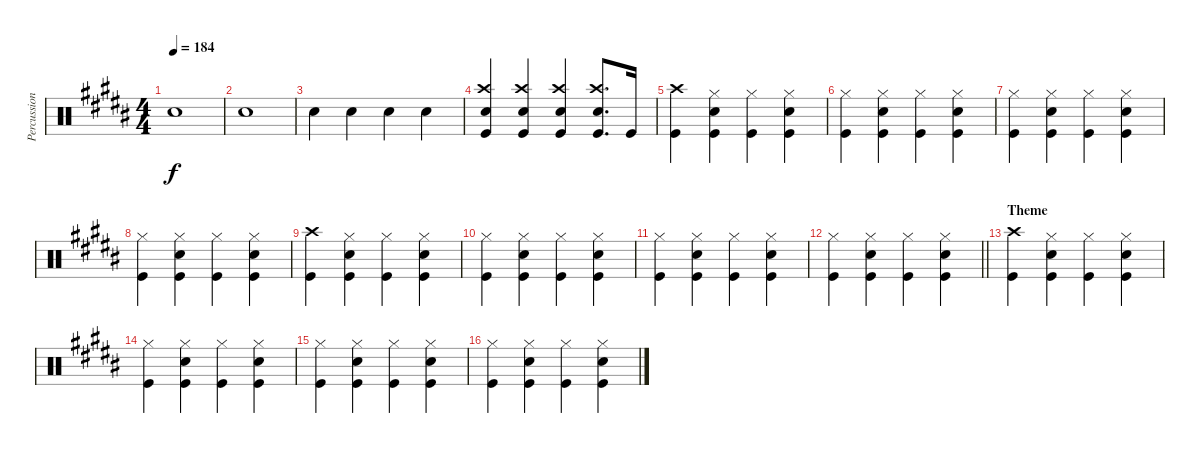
\track ("Percussion" "Percussion") {instrument percussion}
\staff {score}
\articulation defaults
\ts (4 4)
\tempo 184
\clef neutral
\ks b "Snare (hit) 2".1{dy f}
|
"Snare (hit) 2".1 |
"Snare (hit) 2".4 "Snare (hit) 2".4 "Snare (hit) 2".4 "Snare (hit) 2".4 |
("Snare (hit) 2" "Crash high (hit)" "Kick (hit)").4 ("Snare (hit) 2" "Crash high (hit)" "Kick (hit)").4 ("Snare (hit) 2" "Crash high (hit)" "Kick (hit)").4 ("Snare (hit) 2" "Crash high (hit)" "Kick (hit)").8{d} "Kick (hit)".16 |
("Crash high (hit)" "Kick (hit)").4 ("Snare (hit) 2" "Kick (hit)" "Hi-Hat (closed)").4 ("Kick (hit)" "Hi-Hat (closed)").4 ("Snare (hit) 2" "Kick (hit)" "Hi-Hat (closed)").4 |
("Hi-Hat (closed)" "Kick (hit)").4 ("Snare (hit) 2" "Kick (hit)" "Hi-Hat (closed)").4 ("Hi-Hat (closed)" "Kick (hit)").4 ("Snare (hit) 2" "Kick (hit)" "Hi-Hat (closed)").4 |
("Hi-Hat (closed)" "Kick (hit)").4 ("Kick (hit)" "Hi-Hat (closed)" "Snare (hit) 2").4 ("Hi-Hat (closed)" "Kick (hit)").4 ("Hi-Hat (closed)" "Kick (hit)" "Snare (hit) 2").4 |
("Hi-Hat (closed)" "Kick (hit)").4 ("Hi-Hat (closed)" "Kick (hit)" "Snare (hit) 2").4 ("Hi-Hat (closed)" "Kick (hit)").4 ("Hi-Hat (closed)" "Kick (hit)" "Snare (hit) 2").4 |
("Crash high (hit)" "Kick (hit)").4 ("Snare (hit) 2" "Kick (hit)" "Hi-Hat (closed)").4 ("Kick (hit)" "Hi-Hat (closed)").4 ("Snare (hit) 2" "Kick (hit)" "Hi-Hat (closed)").4 |
("Hi-Hat (closed)" "Kick (hit)").4 ("Snare (hit) 2" "Kick (hit)" "Hi-Hat (closed)").4 ("Hi-Hat (closed)" "Kick (hit)").4 ("Snare (hit) 2" "Kick (hit)" "Hi-Hat (closed)").4 |
("Hi-Hat (closed)" "Kick (hit)").4 ("Kick (hit)" "Hi-Hat (closed)" "Snare (hit) 2").4 ("Hi-Hat (closed)" "Kick (hit)").4 ("Hi-Hat (closed)" "Kick (hit)" "Snare (hit) 2").4 |
\barLineRight lightlight
("Hi-Hat (closed)" "Kick (hit)").4 ("Hi-Hat (closed)" "Kick (hit)" "Snare (hit) 2").4 ("Hi-Hat (closed)" "Kick (hit)").4 ("Hi-Hat (closed)" "Kick (hit)" "Snare (hit) 2").4 |
\section ("" "Theme")
("Crash high (hit)" "Kick (hit)").4 ("Snare (hit) 2" "Kick (hit)" "Hi-Hat (closed)").4 ("Kick (hit)" "Hi-Hat (closed)").4 ("Snare (hit) 2" "Kick (hit)" "Hi-Hat (closed)").4 |
("Hi-Hat (closed)" "Kick (hit)").4 ("Snare (hit) 2" "Kick (hit)" "Hi-Hat (closed)").4 ("Hi-Hat (closed)" "Kick (hit)").4 ("Snare (hit) 2" "Kick (hit)" "Hi-Hat (closed)").4 |
("Hi-Hat (closed)" "Kick (hit)").4 ("Kick (hit)" "Hi-Hat (closed)" "Snare (hit) 2").4 ("Hi-Hat (closed)" "Kick (hit)").4 ("Hi-Hat (closed)" "Kick (hit)" "Snare (hit) 2").4 |
("Hi-Hat (closed)" "Kick (hit)").4 ("Hi-Hat (closed)" "Kick (hit)" "Snare (hit) 2").4 ("Hi-Hat (closed)" "Kick (hit)").4 ("Hi-Hat (closed)" "Kick (hit)" "Snare (hit) 2").4
